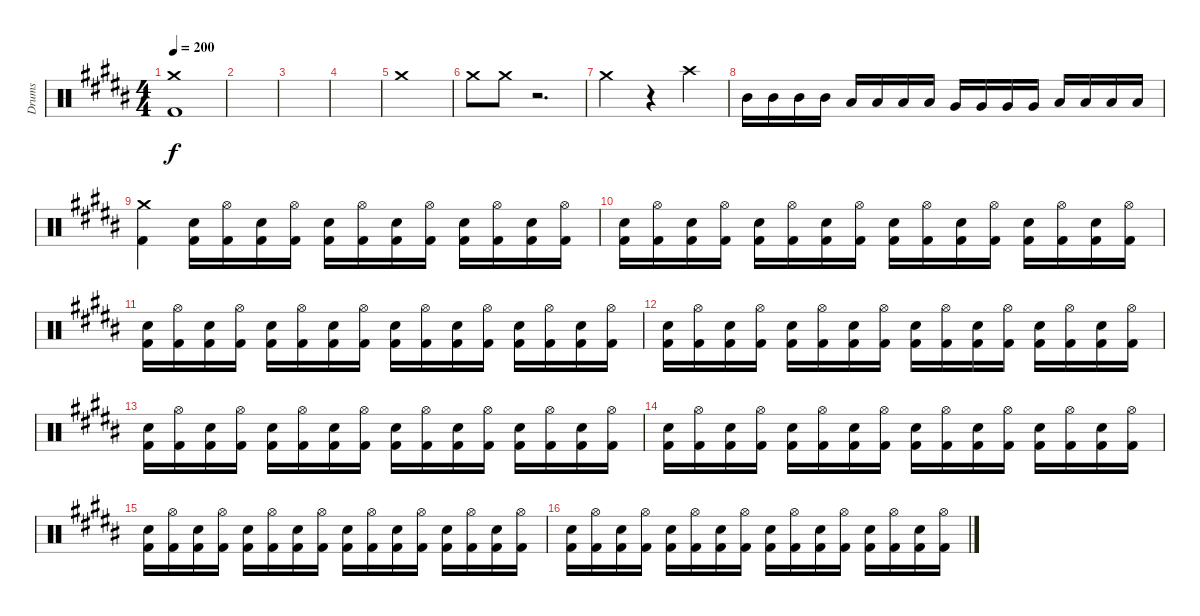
\track ("Drums" "Drums") {instrument percussion}
\staff {score}
\articulation defaults
\ts (4 4)
\tempo 200
\clef neutral
\ks b
("Kick (hit) 2" "Crash medium (hit)").1{dy f} |
|
|
|
"Crash medium (hit)".1 |
"Crash medium (hit)".8 "Crash medium (hit)".8 r.2{d} |
"Crash medium (hit)".2 r.4 "Crash high (hit)".4 |
"Mid Tom (hit)".16 "Mid Tom (hit)".16 "Mid Tom (hit)".16 "Mid Tom (hit)".16 "Low Tom (hit)".16 "Low Tom (hit)".16 "Low Tom (hit)".16 "Low Tom (hit)".16 "Very Low Tom (hit)".16 "Very Low Tom (hit)".16 "Very Low Tom (hit)".16 "Very Low Tom (hit)".16 "Low Floor Tom (hit)".16 "Low Floor Tom (hit)".16 "Low Floor Tom (hit)".16 "Low Floor Tom (hit)".16 |
("Kick (hit) 2" "Crash medium (hit)").4 ("Kick (hit) 2" "Snare (hit) 2").16 ("Kick (hit) 2" "Hi-Hat (open)").16 ("Kick (hit) 2" "Snare (hit) 2").16 ("Kick (hit) 2" "Hi-Hat (open)").16 ("Kick (hit) 2" "Snare (hit) 2").16 ("Kick (hit) 2" "Hi-Hat (open)").16 ("Kick (hit) 2" "Snare (hit) 2").16 ("Kick (hit) 2" "Hi-Hat (open)").16 ("Kick (hit) 2" "Snare (hit) 2").16 ("Kick (hit) 2" "Hi-Hat (open)").16 ("Kick (hit) 2" "Snare (hit) 2").16 ("Kick (hit) 2" "Hi-Hat (open)").16 |
("Snare (hit) 2" "Kick (hit) 2").16 ("Hi-Hat (open)" "Kick (hit) 2").16 ("Snare (hit) 2" "Kick (hit) 2").16 ("Hi-Hat (open)" "Kick (hit) 2").16 ("Snare (hit) 2" "Kick (hit) 2").16 ("Hi-Hat (open)" "Kick (hit) 2").16 ("Snare (hit) 2" "Kick (hit) 2").16 ("Hi-Hat (open)" "Kick (hit) 2").16 ("Snare (hit) 2" "Kick (hit) 2").16 ("Hi-Hat (open)" "Kick (hit) 2").16 ("Snare (hit) 2" "Kick (hit) 2").16 ("Hi-Hat (open)" "Kick (hit) 2").16 ("Snare (hit) 2" "Kick (hit) 2").16 ("Hi-Hat (open)" "Kick (hit) 2").16 ("Snare (hit) 2" "Kick (hit) 2").16 ("Hi-Hat (open)" "Kick (hit) 2").16 |
("Snare (hit) 2" "Kick (hit) 2").16 ("Hi-Hat (open)" "Kick (hit) 2").16 ("Snare (hit) 2" "Kick (hit) 2").16 ("Hi-Hat (open)" "Kick (hit) 2").16 ("Snare (hit) 2" "Kick (hit) 2").16 ("Hi-Hat (open)" "Kick (hit) 2").16 ("Snare (hit) 2" "Kick (hit) 2").16 ("Hi-Hat (open)" "Kick (hit) 2").16 ("Snare (hit) 2" "Kick (hit) 2").16 ("Hi-Hat (open)" "Kick (hit) 2").16 ("Snare (hit) 2" "Kick (hit) 2").16 ("Hi-Hat (open)" "Kick (hit) 2").16 ("Snare (hit) 2" "Kick (hit) 2").16 ("Hi-Hat (open)" "Kick (hit) 2").16 ("Snare (hit) 2" "Kick (hit) 2").16 ("Hi-Hat (open)" "Kick (hit) 2").16 |
("Snare (hit) 2" "Kick (hit) 2").16 ("Hi-Hat (open)" "Kick (hit) 2").16 ("Snare (hit) 2" "Kick (hit) 2").16 ("Hi-Hat (open)" "Kick (hit) 2").16 ("Snare (hit) 2" "Kick (hit) 2").16 ("Hi-Hat (open)" "Kick (hit) 2").16 ("Snare (hit) 2" "Kick (hit) 2").16 ("Hi-Hat (open)" "Kick (hit) 2").16 ("Snare (hit) 2" "Kick (hit) 2").16 ("Hi-Hat (open)" "Kick (hit) 2").16 ("Snare (hit) 2" "Kick (hit) 2").16 ("Hi-Hat (open)" "Kick (hit) 2").16 ("Snare (hit) 2" "Kick (hit) 2").16 ("Hi-Hat (open)" "Kick (hit) 2").16 ("Snare (hit) 2" "Kick (hit) 2").16 ("Hi-Hat (open)" "Kick (hit) 2").16 |
("Snare (hit) 2" "Kick (hit) 2").16 ("Hi-Hat (open)" "Kick (hit) 2").16 ("Snare (hit) 2" "Kick (hit) 2").16 ("Hi-Hat (open)" "Kick (hit) 2").16 ("Snare (hit) 2" "Kick (hit) 2").16 ("Hi-Hat (open)" "Kick (hit) 2").16 ("Snare (hit) 2" "Kick (hit) 2").16 ("Hi-Hat (open)" "Kick (hit) 2").16 ("Snare (hit) 2" "Kick (hit) 2").16 ("Hi-Hat (open)" "Kick (hit) 2").16 ("Snare (hit) 2" "Kick (hit) 2").16 ("Hi-Hat (open)" "Kick (hit) 2").16 ("Snare (hit) 2" "Kick (hit) 2").16 ("Hi-Hat (open)" "Kick (hit) 2").16 ("Snare (hit) 2" "Kick (hit) 2").16 ("Hi-Hat (open)" "Kick (hit) 2").16 |
("Snare (hit) 2" "Kick (hit) 2").16 ("Hi-Hat (open)" "Kick (hit) 2").16 ("Snare (hit) 2" "Kick (hit) 2").16 ("Hi-Hat (open)" "Kick (hit) 2").16 ("Snare (hit) 2" "Kick (hit) 2").16 ("Hi-Hat (open)" "Kick (hit) 2").16 ("Snare (hit) 2" "Kick (hit) 2").16 ("Hi-Hat (open)" "Kick (hit) 2").16 ("Snare (hit) 2" "Kick (hit) 2").16 ("Hi-Hat (open)" "Kick (hit) 2").16 ("Snare (hit) 2" "Kick (hit) 2").16 ("Hi-Hat (open)" "Kick (hit) 2").16 ("Snare (hit) 2" "Kick (hit) 2").16 ("Hi-Hat (open)" "Kick (hit) 2").16 ("Snare (hit) 2" "Kick (hit) 2").16 ("Hi-Hat (open)" "Kick (hit) 2").16 |
("Snare (hit) 2" "Kick (hit) 2").16 ("Hi-Hat (open)" "Kick (hit) 2").16 ("Snare (hit) 2" "Kick (hit) 2").16 ("Hi-Hat (open)" "Kick (hit) 2").16 ("Snare (hit) 2" "Kick (hit) 2").16 ("Hi-Hat (open)" "Kick (hit) 2").16 ("Snare (hit) 2" "Kick (hit) 2").16 ("Hi-Hat (open)" "Kick (hit) 2").16 ("Snare (hit) 2" "Kick (hit) 2").16 ("Hi-Hat (open)" "Kick (hit) 2").16 ("Snare (hit) 2" "Kick (hit) 2").16 ("Hi-Hat (open)" "Kick (hit) 2").16 ("Snare (hit) 2" "Kick (hit) 2").16 ("Hi-Hat (open)" "Kick (hit) 2").16 ("Snare (hit) 2" "Kick (hit) 2").16 ("Hi-Hat (open)" "Kick (hit) 2").16 |
("Snare (hit) 2" "Kick (hit) 2").16 ("Hi-Hat (open)" "Kick (hit) 2").16 ("Snare (hit) 2" "Kick (hit) 2").16 ("Hi-Hat (open)" "Kick (hit) 2").16 ("Snare (hit) 2" "Kick (hit) 2").16 ("Hi-Hat (open)" "Kick (hit) 2").16 ("Snare (hit) 2" "Kick (hit) 2").16 ("Hi-Hat (open)" "Kick (hit) 2").16 ("Snare (hit) 2" "Kick (hit) 2").16 ("Hi-Hat (open)" "Kick (hit) 2").16 ("Snare (hit) 2" "Kick (hit) 2").16 ("Hi-Hat (open)" "Kick (hit) 2").16 ("Snare (hit) 2" "Kick (hit) 2").16 ("Hi-Hat (open)" "Kick (hit) 2").16 ("Snare (hit) 2" "Kick (hit) 2").16 ("Hi-Hat (open)" "Kick (hit) 2").16
